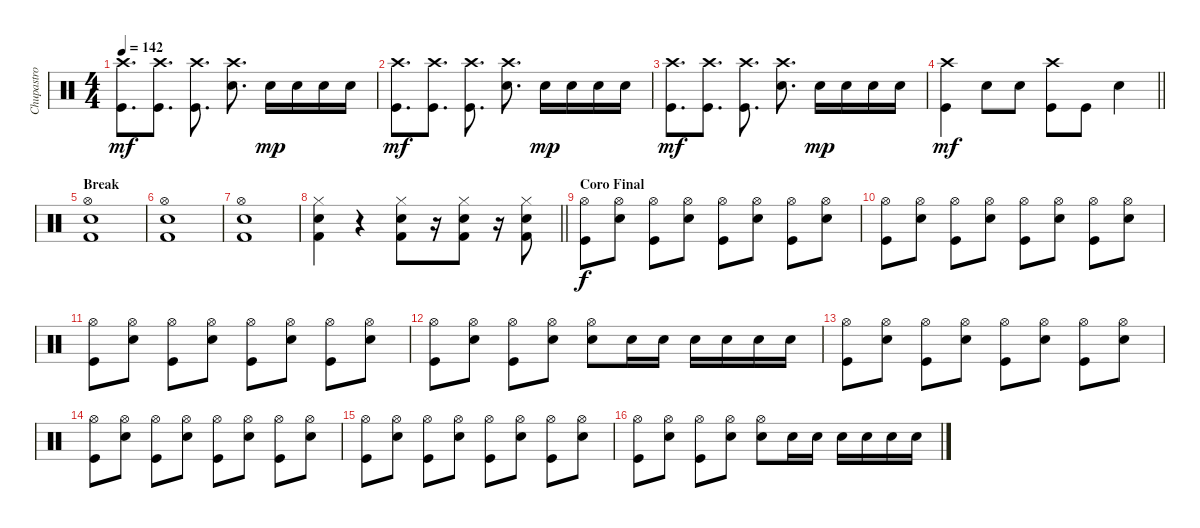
\track ("Chupastro" "Chupastro") {instrument percussion}
\staff {score}
\articulation defaults
\ts (4 4)
\tempo 142
\clef neutral
\ks c
("Crash high (hit)" "Kick (hit)").8{d dy mf} ("Crash high (hit)" "Kick (hit)").8{d} ("Crash high (hit)" "Kick (hit)").8{d} ("Crash high (hit)" "Snare (hit) 2").8{d} "Snare (hit) 2".16{dy mp} "Snare (hit) 2".16 "Snare (hit) 2".16 "Snare (hit) 2".16 |
("Crash high (hit)" "Kick (hit)").8{d dy mf} ("Crash high (hit)" "Kick (hit)").8{d} ("Crash high (hit)" "Kick (hit)").8{d} ("Crash high (hit)" "Snare (hit) 2").8{d} "Snare (hit) 2".16{dy mp} "Snare (hit) 2".16 "Snare (hit) 2".16 "Snare (hit) 2".16 |
("Crash high (hit)" "Kick (hit)").8{d dy mf} ("Crash high (hit)" "Kick (hit)").8{d} ("Crash high (hit)" "Kick (hit)").8{d} ("Crash high (hit)" "Snare (hit) 2").8{d} "Snare (hit) 2".16{dy mp} "Snare (hit) 2".16 "Snare (hit) 2".16 "Snare (hit) 2".16 |
\barLineRight lightlight
("Kick (hit)" "Crash high (hit)").4{dy mf} "Snare (hit) 2".8 "Snare (hit) 2".8 ("Kick (hit)" "Crash high (hit)").8 "Kick (hit)".8 "Snare (hit) 2".4 |
\section ("" "Break")
("Kick (hit) 2" "Snare (hit) 2" "Hi-Hat (open)").1 |
("Kick (hit) 2" "Snare (hit) 2" "Hi-Hat (open)").1 |
("Kick (hit) 2" "Snare (hit) 2" "Hi-Hat (open)").1 |
\barLineRight lightlight
("Kick (hit) 2" "Snare (hit) 2" "Hi-Hat (closed)").4 r.4 ("Kick (hit) 2" "Snare (hit) 2" "Hi-Hat (closed)").8 r.16 ("Kick (hit) 2" "Snare (hit) 2" "Hi-Hat (closed)").8 r.16 ("Kick (hit) 2" "Snare (hit) 2" "Hi-Hat (closed)").8 |
\section ("" "Coro Final")
("Hi-Hat (open)" "Kick (hit)").8{dy f} ("Hi-Hat (open)" "Snare (hit) 2").8 ("Hi-Hat (open)" "Kick (hit)").8 ("Hi-Hat (open)" "Snare (hit) 2").8 ("Hi-Hat (open)" "Kick (hit)").8 ("Hi-Hat (open)" "Snare (hit) 2").8 ("Hi-Hat (open)" "Kick (hit)").8 ("Hi-Hat (open)" "Snare (hit) 2").8 |
("Hi-Hat (open)" "Kick (hit)").8 ("Hi-Hat (open)" "Snare (hit) 2").8 ("Hi-Hat (open)" "Kick (hit)").8 ("Hi-Hat (open)" "Snare (hit) 2").8 ("Hi-Hat (open)" "Kick (hit)").8 ("Hi-Hat (open)" "Snare (hit) 2").8 ("Hi-Hat (open)" "Kick (hit)").8 ("Hi-Hat (open)" "Snare (hit) 2").8 |
("Hi-Hat (open)" "Kick (hit)").8 ("Hi-Hat (open)" "Snare (hit) 2").8 ("Hi-Hat (open)" "Kick (hit)").8 ("Hi-Hat (open)" "Snare (hit) 2").8 ("Hi-Hat (open)" "Kick (hit)").8 ("Hi-Hat (open)" "Snare (hit) 2").8 ("Hi-Hat (open)" "Kick (hit)").8 ("Hi-Hat (open)" "Snare (hit) 2").8 |
("Hi-Hat (open)" "Kick (hit)").8 ("Hi-Hat (open)" "Snare (hit) 2").8 ("Hi-Hat (open)" "Kick (hit)").8 ("Hi-Hat (open)" "Snare (hit) 2").8 ("Hi-Hat (open)" "Snare (hit) 2").8 "Snare (hit) 2".16 "Snare (hit) 2".16 "Snare (hit) 2".16 "Snare (hit) 2".16 "Snare (hit) 2".16 "Snare (hit) 2".16 |
("Hi-Hat (open)" "Kick (hit)").8 ("Hi-Hat (open)" "Snare (hit) 2").8 ("Hi-Hat (open)" "Kick (hit)").8 ("Hi-Hat (open)" "Snare (hit) 2").8 ("Hi-Hat (open)" "Kick (hit)").8 ("Hi-Hat (open)" "Snare (hit) 2").8 ("Hi-Hat (open)" "Kick (hit)").8 ("Hi-Hat (open)" "Snare (hit) 2").8 |
("Hi-Hat (open)" "Kick (hit)").8 ("Hi-Hat (open)" "Snare (hit) 2").8 ("Hi-Hat (open)" "Kick (hit)").8 ("Hi-Hat (open)" "Snare (hit) 2").8 ("Hi-Hat (open)" "Kick (hit)").8 ("Hi-Hat (open)" "Snare (hit) 2").8 ("Hi-Hat (open)" "Kick (hit)").8 ("Hi-Hat (open)" "Snare (hit) 2").8 |
("Hi-Hat (open)" "Kick (hit)").8 ("Hi-Hat (open)" "Snare (hit) 2").8 ("Hi-Hat (open)" "Kick (hit)").8 ("Hi-Hat (open)" "Snare (hit) 2").8 ("Hi-Hat (open)" "Kick (hit)").8 ("Hi-Hat (open)" "Snare (hit) 2").8 ("Hi-Hat (open)" "Kick (hit)").8 ("Hi-Hat (open)" "Snare (hit) 2").8 |
("Hi-Hat (open)" "Kick (hit)").8 ("Hi-Hat (open)" "Snare (hit) 2").8 ("Hi-Hat (open)" "Kick (hit)").8 ("Hi-Hat (open)" "Snare (hit) 2").8 ("Hi-Hat (open)" "Snare (hit) 2").8 "Snare (hit) 2".16 "Snare (hit) 2".16 "Snare (hit) 2".16 "Snare (hit) 2".16 "Snare (hit) 2".16 "Snare (hit) 2".16
